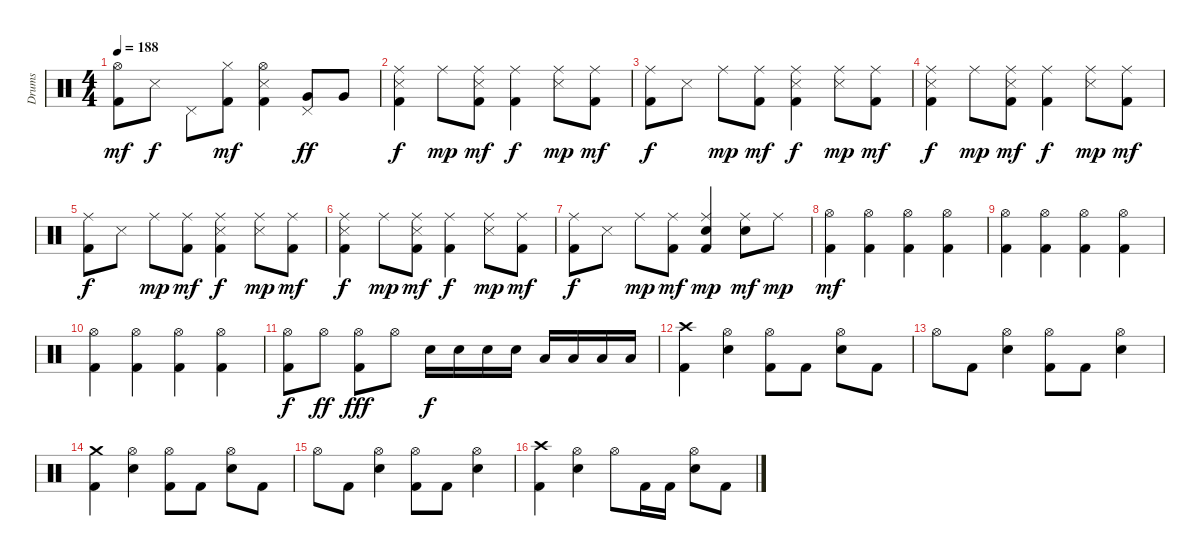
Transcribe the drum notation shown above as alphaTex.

\track ("Drums" "Drums") {instrument percussion}
\staff {score}
\articulation defaults
\ts (4 4)
\tempo 188
\clef neutral
\ks c
("Hi-Hat (open)" "Kick (hit) 2").8{dy mf} "Snare (side stick) 3".8{dy f} "Pedal Hi-Hat (hit)".8 ("Hi-Hat (closed)" "Kick (hit) 2").8{dy mf} ("Hi-Hat (open)" "Snare (side stick) 3" "Kick (hit) 2").4 ("Pedal Hi-Hat (hit)" "Very Low Tom (hit)").8{dy ff} "Very Low Tom (hit)".8 |
("Ride (middle)" "Snare (side stick) 3" "Kick (hit) 2").4{dy f} "Ride (middle)".8{dy mp} ("Ride (middle)" "Snare (side stick) 3" "Kick (hit) 2").8{dy mf} ("Ride (middle)" "Kick (hit) 2").4{dy f} ("Ride (middle)" "Snare (side stick) 3").8{dy mp} ("Ride (middle)" "Kick (hit) 2").8{dy mf} |
("Ride (middle)" "Kick (hit) 2").8{dy f} "Snare (side stick) 3".8 "Ride (middle)".8{dy mp} ("Ride (middle)" "Kick (hit) 2").8{dy mf} ("Ride (middle)" "Snare (side stick) 3" "Kick (hit) 2").4{dy f} ("Ride (middle)" "Snare (side stick) 3").8{dy mp} ("Ride (middle)" "Kick (hit) 2").8{dy mf} |
("Ride (middle)" "Snare (side stick) 3" "Kick (hit) 2").4{dy f} "Ride (middle)".8{dy mp} ("Ride (middle)" "Snare (side stick) 3" "Kick (hit) 2").8{dy mf} ("Ride (middle)" "Kick (hit) 2").4{dy f} ("Ride (middle)" "Snare (side stick) 3").8{dy mp} ("Ride (middle)" "Kick (hit) 2").8{dy mf} |
("Ride (middle)" "Kick (hit) 2").8{dy f} "Snare (side stick) 3".8 "Ride (middle)".8{dy mp} ("Ride (middle)" "Kick (hit) 2").8{dy mf} ("Ride (middle)" "Snare (side stick) 3" "Kick (hit) 2").4{dy f} ("Ride (middle)" "Snare (side stick) 3").8{dy mp} ("Ride (middle)" "Kick (hit) 2").8{dy mf} |
("Ride (middle)" "Snare (side stick) 3" "Kick (hit) 2").4{dy f} "Ride (middle)".8{dy mp} ("Ride (middle)" "Snare (side stick) 3" "Kick (hit) 2").8{dy mf} ("Ride (middle)" "Kick (hit) 2").4{dy f} ("Ride (middle)" "Snare (side stick) 3").8{dy mp} ("Ride (middle)" "Kick (hit) 2").8{dy mf} |
("Ride (middle)" "Kick (hit) 2").8{dy f} "Snare (side stick) 3".8 "Ride (middle)".8{dy mp} ("Ride (middle)" "Kick (hit) 2").8{dy mf} ("Ride (middle)" "Electric Snare (hit)" "Kick (hit) 2").4{dy mp} ("Ride (middle)" "Electric Snare (hit)").8{dy mf} "Ride (middle)".8{dy mp} |
("Hi-Hat (open)" "Kick (hit) 2").4{dy mf} ("Hi-Hat (open)" "Kick (hit) 2").4 ("Hi-Hat (open)" "Kick (hit) 2").4 ("Hi-Hat (open)" "Kick (hit) 2").4 |
("Hi-Hat (open)" "Kick (hit) 2").4 ("Hi-Hat (open)" "Kick (hit) 2").4 ("Hi-Hat (open)" "Kick (hit) 2").4 ("Hi-Hat (open)" "Kick (hit) 2").4 |
("Hi-Hat (open)" "Kick (hit) 2").4 ("Hi-Hat (open)" "Kick (hit) 2").4 ("Hi-Hat (open)" "Kick (hit) 2").4 ("Hi-Hat (open)" "Kick (hit) 2").4 |
("Hi-Hat (open)" "Kick (hit) 2").8{dy f} "Hi-Hat (open)".8{dy ff} ("Hi-Hat (open)" "Kick (hit) 2").8{dy fff} "Hi-Hat (open)".8 "Electric Snare (hit)".16{dy f} "Electric Snare (hit)".16 "Electric Snare (hit)".16 "Electric Snare (hit)".16 "Low Tom (hit)".16 "Low Tom (hit)".16 "Low Tom (hit)".16 "Low Tom (hit)".16 |
("Crash high (hit)" "Kick (hit) 2").4 ("Hi-Hat (open)" "Electric Snare (hit)").4 ("Hi-Hat (open)" "Kick (hit) 2").8 "Kick (hit) 2".8 ("Hi-Hat (open)" "Electric Snare (hit)").8 "Kick (hit) 2".8 |
"Hi-Hat (open)".8 "Kick (hit) 2".8 ("Hi-Hat (open)" "Electric Snare (hit)").4 ("Hi-Hat (open)" "Kick (hit) 2").8 "Kick (hit) 2".8 ("Hi-Hat (open)" "Electric Snare (hit)").4 |
("Crash medium (hit)" "Kick (hit) 2").4 ("Hi-Hat (open)" "Electric Snare (hit)").4 ("Hi-Hat (open)" "Kick (hit) 2").8 "Kick (hit) 2".8 ("Hi-Hat (open)" "Electric Snare (hit)").8 "Kick (hit) 2".8 |
"Hi-Hat (open)".8 "Kick (hit) 2".8 ("Hi-Hat (open)" "Electric Snare (hit)").4 ("Hi-Hat (open)" "Kick (hit) 2").8 "Kick (hit) 2".8 ("Hi-Hat (open)" "Electric Snare (hit)").4 |
("Crash high (hit)" "Kick (hit) 2").4 ("Hi-Hat (open)" "Electric Snare (hit)").4 "Hi-Hat (open)".8 "Kick (hit) 2".16 "Kick (hit) 2".16 ("Hi-Hat (open)" "Electric Snare (hit)").8 "Kick (hit) 2".8
